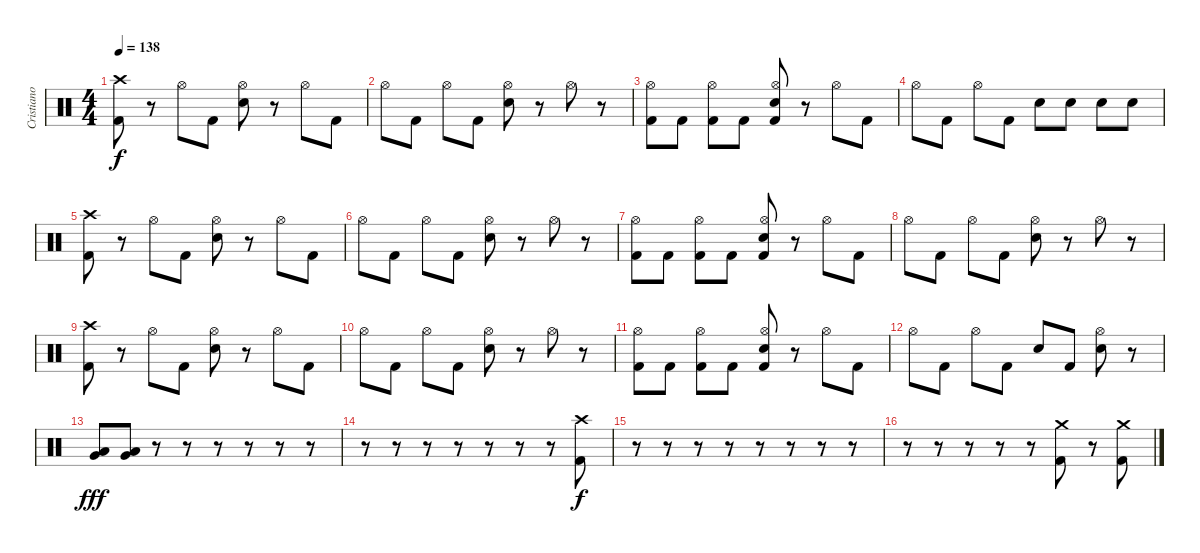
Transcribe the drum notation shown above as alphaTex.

\track ("Cristiano Mozatti" "Cristiano ") {instrument percussion}
\staff {score}
\articulation defaults
\ts (4 4)
\tempo 138
\clef neutral
\ks c
("Crash high (hit)" "Kick (hit) 2").8{dy f} r.8 "Hi-Hat (open)".8 "Kick (hit) 2".8 ("Hi-Hat (open)" "Snare (hit) 2").8 r.8 "Hi-Hat (open)".8 "Kick (hit) 2".8 |
"Hi-Hat (open)".8 "Kick (hit) 2".8 "Hi-Hat (open)".8 "Kick (hit) 2".8 ("Hi-Hat (open)" "Snare (hit) 2").8 r.8 "Hi-Hat (open)".8 r.8 |
("Hi-Hat (open)" "Kick (hit) 2").8 "Kick (hit) 2".8 ("Hi-Hat (open)" "Kick (hit) 2").8 "Kick (hit) 2".8 ("Hi-Hat (open)" "Snare (hit) 2" "Kick (hit) 2").8 r.8 "Hi-Hat (open)".8 "Kick (hit) 2".8 |
"Hi-Hat (open)".8 "Kick (hit) 2".8 "Hi-Hat (open)".8 "Kick (hit) 2".8 "Snare (hit) 2".8 "Snare (hit) 2".8 "Snare (hit) 2".8 "Snare (hit) 2".8 |
("Crash high (hit)" "Kick (hit) 2").8 r.8 "Hi-Hat (open)".8 "Kick (hit) 2".8 ("Hi-Hat (open)" "Snare (hit) 2").8 r.8 "Hi-Hat (open)".8 "Kick (hit) 2".8 |
"Hi-Hat (open)".8 "Kick (hit) 2".8 "Hi-Hat (open)".8 "Kick (hit) 2".8 ("Hi-Hat (open)" "Snare (hit) 2").8 r.8 "Hi-Hat (open)".8 r.8 |
("Hi-Hat (open)" "Kick (hit) 2").8 "Kick (hit) 2".8 ("Hi-Hat (open)" "Kick (hit) 2").8 "Kick (hit) 2".8 ("Hi-Hat (open)" "Snare (hit) 2" "Kick (hit) 2").8 r.8 "Hi-Hat (open)".8 "Kick (hit) 2".8 |
"Hi-Hat (open)".8 "Kick (hit) 2".8 "Hi-Hat (open)".8 "Kick (hit) 2".8 ("Hi-Hat (open)" "Snare (hit) 2").8 r.8 "Hi-Hat (open)".8 r.8 |
("Crash high (hit)" "Kick (hit) 2").8 r.8 "Hi-Hat (open)".8 "Kick (hit) 2".8 ("Hi-Hat (open)" "Snare (hit) 2").8 r.8 "Hi-Hat (open)".8 "Kick (hit) 2".8 |
"Hi-Hat (open)".8 "Kick (hit) 2".8 "Hi-Hat (open)".8 "Kick (hit) 2".8 ("Hi-Hat (open)" "Snare (hit) 2").8 r.8 "Hi-Hat (open)".8 r.8 |
("Hi-Hat (open)" "Kick (hit) 2").8 "Kick (hit) 2".8 ("Hi-Hat (open)" "Kick (hit) 2").8 "Kick (hit) 2".8 ("Hi-Hat (open)" "Snare (hit) 2" "Kick (hit) 2").8 r.8 "Hi-Hat (open)".8 "Kick (hit) 2".8 |
"Hi-Hat (open)".8 "Kick (hit) 2".8 "Hi-Hat (open)".8 "Kick (hit) 2".8 "Snare (hit) 2".8 "Kick (hit) 2".8 ("Hi-Hat (open)" "Snare (hit) 2").8 r.8 |
("Very Low Tom (hit)" "Low Floor Tom (hit)").8{dy fff} ("Very Low Tom (hit)" "Low Floor Tom (hit)").8 r.8 r.8 r.8 r.8 r.8 r.8 |
r.8 r.8 r.8 r.8 r.8 r.8 r.8 ("Crash high (hit)" "Kick (hit) 2").8{dy f} |
r.8 r.8 r.8 r.8 r.8 r.8 r.8 r.8 |
r.8 r.8 r.8 r.8 r.8 ("Crash medium (hit)" "Kick (hit) 2").8 r.8 ("Crash medium (hit)" "Kick (hit) 2").8
